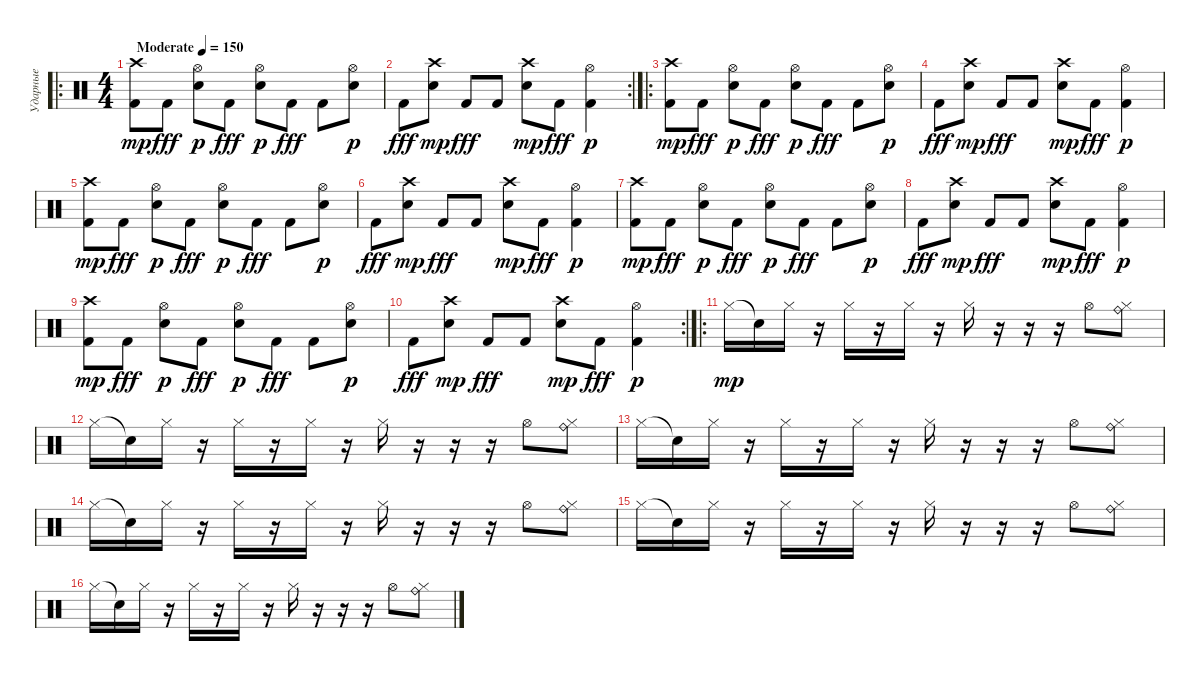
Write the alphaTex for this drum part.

\track ("Ударные" "Ударные") {instrument percussion}
\staff {score}
\articulation defaults
\ro
\ts (4 4)
\tempo (150 "Moderate")
\clef neutral
\ks c
("Kick (hit) 2" "Crash high (hit)").8{dy mp} "Kick (hit) 2".8{dy fff} ("Snare (hit) 2" "Hi-Hat (open)").8{dy p} "Kick (hit) 2".8{dy fff} ("Snare (hit) 2" "Hi-Hat (open)").8{dy p} "Kick (hit) 2".8{dy fff} "Kick (hit) 2".8 ("Snare (hit) 2" "Hi-Hat (open)").8{dy p} |
\rc 2 "Kick (hit) 2".8{dy fff}
("Snare (hit) 2" "Crash high (hit)").8{dy mp} "Kick (hit) 2".8{dy fff} "Kick (hit) 2".8 ("Snare (hit) 2" "Crash high (hit)").8{dy mp} "Kick (hit) 2".8{dy fff} ("Kick (hit) 2" "Hi-Hat (open)").4{dy p} |
\ro
("Kick (hit) 2" "Crash high (hit)").8{dy mp} "Kick (hit) 2".8{dy fff} ("Snare (hit) 2" "Hi-Hat (open)").8{dy p} "Kick (hit) 2".8{dy fff} ("Snare (hit) 2" "Hi-Hat (open)").8{dy p} "Kick (hit) 2".8{dy fff} "Kick (hit) 2".8 ("Snare (hit) 2" "Hi-Hat (open)").8{dy p} |
"Kick (hit) 2".8{dy fff} ("Snare (hit) 2" "Crash high (hit)").8{dy mp} "Kick (hit) 2".8{dy fff} "Kick (hit) 2".8 ("Snare (hit) 2" "Crash high (hit)").8{dy mp} "Kick (hit) 2".8{dy fff} ("Kick (hit) 2" "Hi-Hat (open)").4{dy p} |
("Kick (hit) 2" "Crash high (hit)").8{dy mp} "Kick (hit) 2".8{dy fff} ("Snare (hit) 2" "Hi-Hat (open)").8{dy p} "Kick (hit) 2".8{dy fff} ("Snare (hit) 2" "Hi-Hat (open)").8{dy p} "Kick (hit) 2".8{dy fff} "Kick (hit) 2".8 ("Snare (hit) 2" "Hi-Hat (open)").8{dy p} |
"Kick (hit) 2".8{dy fff} ("Snare (hit) 2" "Crash high (hit)").8{dy mp} "Kick (hit) 2".8{dy fff} "Kick (hit) 2".8 ("Snare (hit) 2" "Crash high (hit)").8{dy mp} "Kick (hit) 2".8{dy fff} ("Kick (hit) 2" "Hi-Hat (open)").4{dy p} |
("Kick (hit) 2" "Crash high (hit)").8{dy mp} "Kick (hit) 2".8{dy fff} ("Snare (hit) 2" "Hi-Hat (open)").8{dy p} "Kick (hit) 2".8{dy fff} ("Snare (hit) 2" "Hi-Hat (open)").8{dy p} "Kick (hit) 2".8{dy fff} "Kick (hit) 2".8 ("Snare (hit) 2" "Hi-Hat (open)").8{dy p} |
"Kick (hit) 2".8{dy fff} ("Snare (hit) 2" "Crash high (hit)").8{dy mp} "Kick (hit) 2".8{dy fff} "Kick (hit) 2".8 ("Snare (hit) 2" "Crash high (hit)").8{dy mp} "Kick (hit) 2".8{dy fff} ("Kick (hit) 2" "Hi-Hat (open)").4{dy p} |
("Kick (hit) 2" "Crash high (hit)").8{dy mp} "Kick (hit) 2".8{dy fff} ("Snare (hit) 2" "Hi-Hat (open)").8{dy p} "Kick (hit) 2".8{dy fff} ("Snare (hit) 2" "Hi-Hat (open)").8{dy p} "Kick (hit) 2".8{dy fff} "Kick (hit) 2".8 ("Snare (hit) 2" "Hi-Hat (open)").8{dy p} |
\rc 2 "Kick (hit) 2".8{dy fff}
("Snare (hit) 2" "Crash high (hit)").8{dy mp} "Kick (hit) 2".8{dy fff} "Kick (hit) 2".8 ("Snare (hit) 2" "Crash high (hit)").8{dy mp} "Kick (hit) 2".8{dy fff} ("Kick (hit) 2" "Hi-Hat (open)").4{dy p} |
\ro "Hi-Hat (closed)".16{dy mp} "Snare (hit)"{t}.16 "Hi-Hat (closed)".16
r.16 "Hi-Hat (closed)".16 r.16 "Hi-Hat (closed)".16 r.16 "Hi-Hat (closed)".16 r.16 r.16 r.16 "Hi-Hat (open)".8 ("Ride (bell)" "Hi-Hat (closed)").8 |
"Hi-Hat (closed)".16 "Snare (hit)"{t}.16 "Hi-Hat (closed)".16 r.16 "Hi-Hat (closed)".16 r.16 "Hi-Hat (closed)".16 r.16 "Hi-Hat (closed)".16 r.16 r.16 r.16 "Hi-Hat (open)".8 ("Ride (bell)" "Hi-Hat (closed)").8 |
"Hi-Hat (closed)".16 "Snare (hit)"{t}.16 "Hi-Hat (closed)".16 r.16 "Hi-Hat (closed)".16 r.16 "Hi-Hat (closed)".16 r.16 "Hi-Hat (closed)".16 r.16 r.16 r.16 "Hi-Hat (open)".8 ("Ride (bell)" "Hi-Hat (closed)").8 |
"Hi-Hat (closed)".16 "Snare (hit)"{t}.16 "Hi-Hat (closed)".16 r.16 "Hi-Hat (closed)".16 r.16 "Hi-Hat (closed)".16 r.16 "Hi-Hat (closed)".16 r.16 r.16 r.16 "Hi-Hat (open)".8 ("Ride (bell)" "Hi-Hat (closed)").8 |
"Hi-Hat (closed)".16 "Snare (hit)"{t}.16 "Hi-Hat (closed)".16 r.16 "Hi-Hat (closed)".16 r.16 "Hi-Hat (closed)".16 r.16 "Hi-Hat (closed)".16 r.16 r.16 r.16 "Hi-Hat (open)".8 ("Ride (bell)" "Hi-Hat (closed)").8 |
"Hi-Hat (closed)".16 "Snare (hit)"{t}.16 "Hi-Hat (closed)".16 r.16 "Hi-Hat (closed)".16 r.16 "Hi-Hat (closed)".16 r.16 "Hi-Hat (closed)".16 r.16 r.16 r.16 "Hi-Hat (open)".8 ("Ride (bell)" "Hi-Hat (closed)").8
